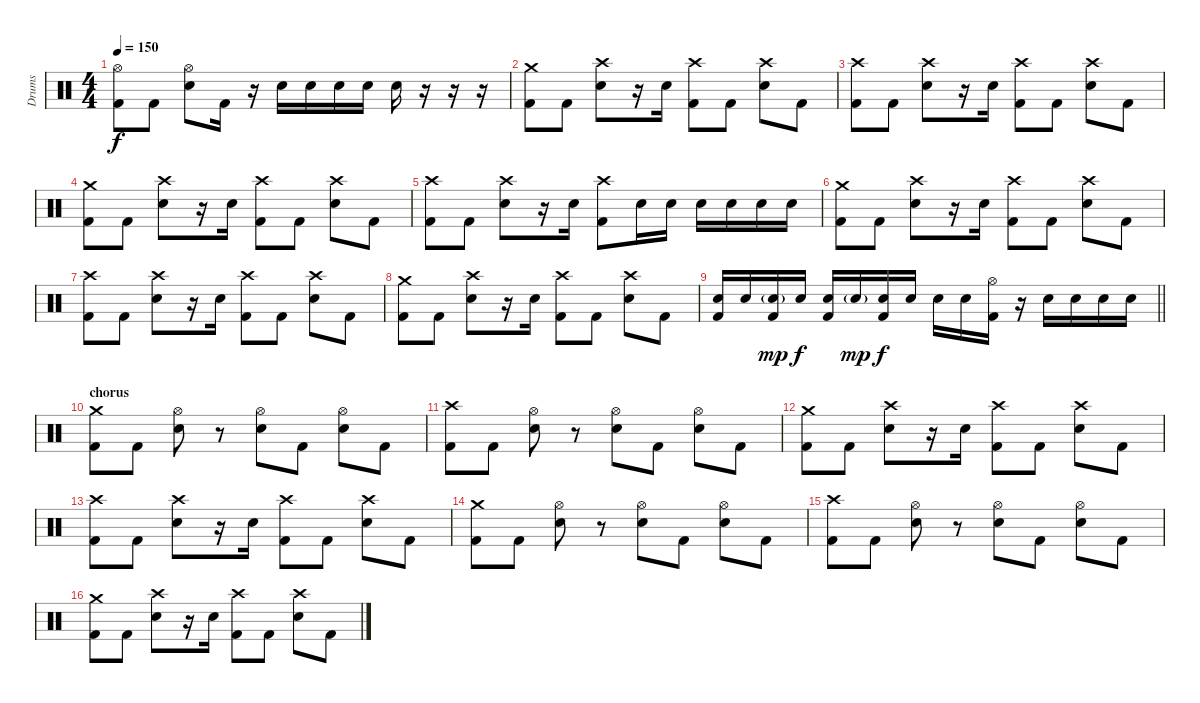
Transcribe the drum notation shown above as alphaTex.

\track ("Drums" "Drums") {instrument percussion}
\staff {score}
\articulation defaults
\ts (4 4)
\tempo 150
\clef neutral
\ks c
("Kick (hit) 2" "Hi-Hat (open)").8{dy f} "Kick (hit) 2".8 ("Electric Snare (hit)" "Hi-Hat (open)").8 "Kick (hit) 2".16 r.16 "Electric Snare (hit)".16 "Electric Snare (hit)".16 "Electric Snare (hit)".16 "Electric Snare (hit)".16 "Electric Snare (hit)".16 r.16 r.16 r.16 |
("Kick (hit) 2" "Crash medium (hit)").8 "Kick (hit) 2".8 ("Electric Snare (hit)" "Crash high (hit)").8 r.16 "Electric Snare (hit)".16 ("Kick (hit) 2" "Crash high (hit)").8 "Kick (hit) 2".8 ("Electric Snare (hit)" "Crash high (hit)").8 "Kick (hit) 2".8 |
("Kick (hit) 2" "Crash high (hit)").8 "Kick (hit) 2".8 ("Electric Snare (hit)" "Crash high (hit)").8 r.16 "Electric Snare (hit)".16 ("Kick (hit) 2" "Crash high (hit)").8 "Kick (hit) 2".8 ("Electric Snare (hit)" "Crash high (hit)").8 "Kick (hit) 2".8 |
("Kick (hit) 2" "Crash medium (hit)").8 "Kick (hit) 2".8 ("Electric Snare (hit)" "Crash high (hit)").8 r.16 "Electric Snare (hit)".16 ("Kick (hit) 2" "Crash high (hit)").8 "Kick (hit) 2".8 ("Electric Snare (hit)" "Crash high (hit)").8 "Kick (hit) 2".8 |
("Kick (hit) 2" "Crash high (hit)").8 "Kick (hit) 2".8 ("Electric Snare (hit)" "Crash high (hit)").8 r.16 "Electric Snare (hit)".16 ("Kick (hit) 2" "Crash high (hit)").8 "Electric Snare (hit)".16 "Electric Snare (hit)".16 "Electric Snare (hit)".16 "Electric Snare (hit)".16 "Electric Snare (hit)".16 "Electric Snare (hit)".16 |
("Kick (hit) 2" "Crash medium (hit)").8 "Kick (hit) 2".8 ("Electric Snare (hit)" "Crash high (hit)").8 r.16 "Electric Snare (hit)".16 ("Kick (hit) 2" "Crash high (hit)").8 "Kick (hit) 2".8 ("Electric Snare (hit)" "Crash high (hit)").8 "Kick (hit) 2".8 |
("Kick (hit) 2" "Crash high (hit)").8 "Kick (hit) 2".8 ("Electric Snare (hit)" "Crash high (hit)").8 r.16 "Electric Snare (hit)".16 ("Kick (hit) 2" "Crash high (hit)").8 "Kick (hit) 2".8 ("Electric Snare (hit)" "Crash high (hit)").8 "Kick (hit) 2".8 |
("Kick (hit) 2" "Crash medium (hit)").8 "Kick (hit) 2".8 ("Electric Snare (hit)" "Crash high (hit)").8 r.16 "Electric Snare (hit)".16 ("Kick (hit) 2" "Crash high (hit)").8 "Kick (hit) 2".8 ("Electric Snare (hit)" "Crash high (hit)").8 "Kick (hit) 2".8 |
\barLineRight lightlight
("Electric Snare (hit)" "Kick (hit) 2").16 "Electric Snare (hit)".16 ("Electric Snare (hit)"{g} "Kick (hit) 2").16{dy mp} "Electric Snare (hit)".16{dy f} ("Electric Snare (hit)" "Kick (hit) 2").16 "Electric Snare (hit)"{g}.16{dy mp} ("Electric Snare (hit)" "Kick (hit) 2").16{dy f} "Electric Snare (hit)".16 "Electric Snare (hit)".16 "Electric Snare (hit)".16 ("Kick (hit) 2" "Hi-Hat (open)").16 r.16 "Electric Snare (hit)".16 "Electric Snare (hit)".16 "Electric Snare (hit)".16 "Electric Snare (hit)".16 |
\section ("" "chorus")
("Kick (hit) 2" "Crash medium (hit)").8 "Kick (hit) 2".8 ("Electric Snare (hit)" "Hi-Hat (open)").8 r.8 ("Electric Snare (hit)" "Hi-Hat (open)").8 "Kick (hit) 2".8 ("Electric Snare (hit)" "Hi-Hat (open)").8 "Kick (hit) 2".8 |
("Kick (hit) 2" "Crash high (hit)").8 "Kick (hit) 2".8 ("Electric Snare (hit)" "Hi-Hat (open)").8 r.8 ("Electric Snare (hit)" "Hi-Hat (open)").8 "Kick (hit) 2".8 ("Electric Snare (hit)" "Hi-Hat (open)").8 "Kick (hit) 2".8 |
("Kick (hit) 2" "Crash medium (hit)").8 "Kick (hit) 2".8 ("Electric Snare (hit)" "Crash high (hit)").8 r.16 "Electric Snare (hit)".16 ("Kick (hit) 2" "Crash high (hit)").8 "Kick (hit) 2".8 ("Electric Snare (hit)" "Crash high (hit)").8 "Kick (hit) 2".8 |
("Kick (hit) 2" "Crash high (hit)").8 "Kick (hit) 2".8 ("Electric Snare (hit)" "Crash high (hit)").8 r.16 "Electric Snare (hit)".16 ("Kick (hit) 2" "Crash high (hit)").8 "Kick (hit) 2".8 ("Electric Snare (hit)" "Crash high (hit)").8 "Kick (hit) 2".8 |
("Kick (hit) 2" "Crash medium (hit)").8 "Kick (hit) 2".8 ("Electric Snare (hit)" "Hi-Hat (open)").8 r.8 ("Electric Snare (hit)" "Hi-Hat (open)").8 "Kick (hit) 2".8 ("Electric Snare (hit)" "Hi-Hat (open)").8 "Kick (hit) 2".8 |
("Kick (hit) 2" "Crash high (hit)").8 "Kick (hit) 2".8 ("Electric Snare (hit)" "Hi-Hat (open)").8 r.8 ("Electric Snare (hit)" "Hi-Hat (open)").8 "Kick (hit) 2".8 ("Electric Snare (hit)" "Hi-Hat (open)").8 "Kick (hit) 2".8 |
("Kick (hit) 2" "Crash medium (hit)").8 "Kick (hit) 2".8 ("Electric Snare (hit)" "Crash high (hit)").8 r.16 "Electric Snare (hit)".16 ("Kick (hit) 2" "Crash high (hit)").8 "Kick (hit) 2".8 ("Electric Snare (hit)" "Crash high (hit)").8 "Kick (hit) 2".8
